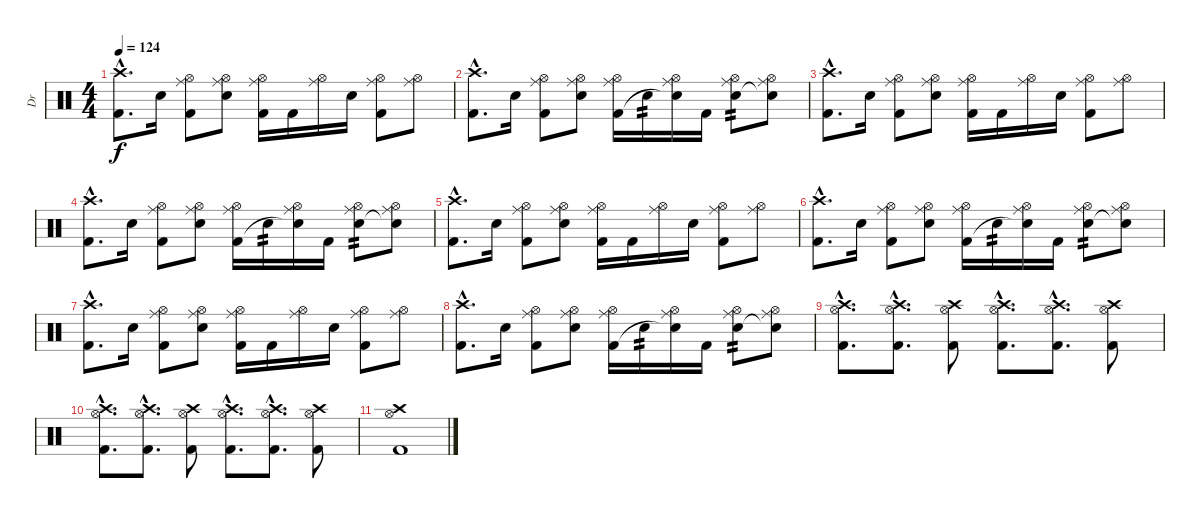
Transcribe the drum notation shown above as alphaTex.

\track ("Dr" "Dr") {instrument percussion}
\staff {score}
\articulation defaults
\ts (4 4)
\tempo 124
\clef neutral
\ks c
("Crash high (hit)"{hac} "Kick (hit) 2"{hac}).8{d dy f volume 14} "Electric Snare (hit)".16 ("Ride (middle)" "Hi-Hat (open)" "Kick (hit) 2").8 ("Ride (middle)" "Hi-Hat (open)" "Electric Snare (hit)").8 ("Ride (middle)" "Hi-Hat (open)" "Kick (hit) 2").16 "Kick (hit) 2".16 ("Ride (middle)" "Hi-Hat (open)").16 "Electric Snare (hit)".16 ("Ride (middle)" "Hi-Hat (open)" "Kick (hit) 2").8 ("Ride (middle)" "Hi-Hat (open)").8 |
("Crash high (hit)"{hac} "Kick (hit) 2"{hac}).8{d} "Electric Snare (hit)".16 ("Ride (middle)" "Hi-Hat (open)" "Kick (hit) 2").8 ("Ride (middle)" "Hi-Hat (open)" "Electric Snare (hit)").8 ("Ride (middle)" "Hi-Hat (open)" "Kick (hit) 2").16 "Electric Snare (hit)".16{tp 2} ("Ride (middle)" "Hi-Hat (open)" "Snare (hit)"{t}).16 "Kick (hit) 2".16 ("Ride (middle)" "Hi-Hat (open)" "Electric Snare (hit)").8{tp 2} ("Ride (middle)" "Hi-Hat (open)" "Snare (hit)"{t}).8 |
("Crash high (hit)"{hac} "Kick (hit) 2"{hac}).8{d} "Electric Snare (hit)".16 ("Ride (middle)" "Hi-Hat (open)" "Kick (hit) 2").8 ("Ride (middle)" "Hi-Hat (open)" "Electric Snare (hit)").8 ("Ride (middle)" "Hi-Hat (open)" "Kick (hit) 2").16 "Kick (hit) 2".16 ("Ride (middle)" "Hi-Hat (open)").16 "Electric Snare (hit)".16 ("Ride (middle)" "Hi-Hat (open)" "Kick (hit) 2").8 ("Ride (middle)" "Hi-Hat (open)").8 |
("Crash high (hit)"{hac} "Kick (hit) 2"{hac}).8{d} "Electric Snare (hit)".16 ("Ride (middle)" "Hi-Hat (open)" "Kick (hit) 2").8 ("Ride (middle)" "Hi-Hat (open)" "Electric Snare (hit)").8 ("Ride (middle)" "Hi-Hat (open)" "Kick (hit) 2").16 "Electric Snare (hit)".16{tp 2} ("Ride (middle)" "Hi-Hat (open)" "Snare (hit)"{t}).16 "Kick (hit) 2".16 ("Ride (middle)" "Hi-Hat (open)" "Electric Snare (hit)").8{tp 2} ("Ride (middle)" "Hi-Hat (open)" "Snare (hit)"{t}).8 |
("Crash high (hit)"{hac} "Kick (hit) 2"{hac}).8{d} "Electric Snare (hit)".16 ("Ride (middle)" "Hi-Hat (open)" "Kick (hit) 2").8 ("Ride (middle)" "Hi-Hat (open)" "Electric Snare (hit)").8 ("Ride (middle)" "Hi-Hat (open)" "Kick (hit) 2").16 "Kick (hit) 2".16 ("Ride (middle)" "Hi-Hat (open)").16 "Electric Snare (hit)".16 ("Ride (middle)" "Hi-Hat (open)" "Kick (hit) 2").8 ("Ride (middle)" "Hi-Hat (open)").8 |
("Crash high (hit)"{hac} "Kick (hit) 2"{hac}).8{d} "Electric Snare (hit)".16 ("Ride (middle)" "Hi-Hat (open)" "Kick (hit) 2").8 ("Ride (middle)" "Hi-Hat (open)" "Electric Snare (hit)").8 ("Ride (middle)" "Hi-Hat (open)" "Kick (hit) 2").16 "Electric Snare (hit)".16{tp 2} ("Ride (middle)" "Hi-Hat (open)" "Snare (hit)"{t}).16 "Kick (hit) 2".16 ("Ride (middle)" "Hi-Hat (open)" "Electric Snare (hit)").8{tp 2} ("Ride (middle)" "Hi-Hat (open)" "Snare (hit)"{t}).8 |
("Crash high (hit)"{hac} "Kick (hit) 2"{hac}).8{d} "Electric Snare (hit)".16 ("Ride (middle)" "Hi-Hat (open)" "Kick (hit) 2").8 ("Ride (middle)" "Hi-Hat (open)" "Electric Snare (hit)").8 ("Ride (middle)" "Hi-Hat (open)" "Kick (hit) 2").16 "Kick (hit) 2".16 ("Ride (middle)" "Hi-Hat (open)").16 "Electric Snare (hit)".16 ("Ride (middle)" "Hi-Hat (open)" "Kick (hit) 2").8 ("Ride (middle)" "Hi-Hat (open)").8 |
("Crash high (hit)"{hac} "Kick (hit) 2"{hac}).8{d} "Electric Snare (hit)".16 ("Ride (middle)" "Hi-Hat (open)" "Kick (hit) 2").8 ("Ride (middle)" "Hi-Hat (open)" "Electric Snare (hit)").8 ("Ride (middle)" "Hi-Hat (open)" "Kick (hit) 2").16 "Electric Snare (hit)".16{tp 2} ("Ride (middle)" "Hi-Hat (open)" "Snare (hit)"{t}).16 "Kick (hit) 2".16 ("Ride (middle)" "Hi-Hat (open)" "Electric Snare (hit)").8{tp 2} ("Ride (middle)" "Hi-Hat (open)" "Snare (hit)"{t}).8 |
("Crash high (hit)"{hac} "Hi-Hat (open)"{hac} "Kick (hit) 2"{hac}).8{d} ("Crash high (hit)"{hac} "Hi-Hat (open)"{hac} "Kick (hit) 2"{hac}).8{d} ("Crash high (hit)" "Hi-Hat (open)" "Kick (hit) 2").8 ("Crash high (hit)"{hac} "Hi-Hat (open)"{hac} "Kick (hit) 2"{hac}).8{d} ("Crash high (hit)"{hac} "Hi-Hat (open)"{hac} "Kick (hit) 2"{hac}).8{d} ("Crash high (hit)" "Hi-Hat (open)" "Kick (hit) 2").8 |
("Crash high (hit)"{hac} "Hi-Hat (open)"{hac} "Kick (hit) 2"{hac}).8{d} ("Crash high (hit)"{hac} "Hi-Hat (open)"{hac} "Kick (hit) 2"{hac}).8{d} ("Crash high (hit)" "Hi-Hat (open)" "Kick (hit) 2").8 ("Crash high (hit)"{hac} "Hi-Hat (open)"{hac} "Kick (hit) 2"{hac}).8{d} ("Crash high (hit)"{hac} "Hi-Hat (open)"{hac} "Kick (hit) 2"{hac}).8{d} ("Crash high (hit)" "Hi-Hat (open)" "Kick (hit) 2").8 |
("Crash high (hit)" "Hi-Hat (open)" "Kick (hit) 2").1
